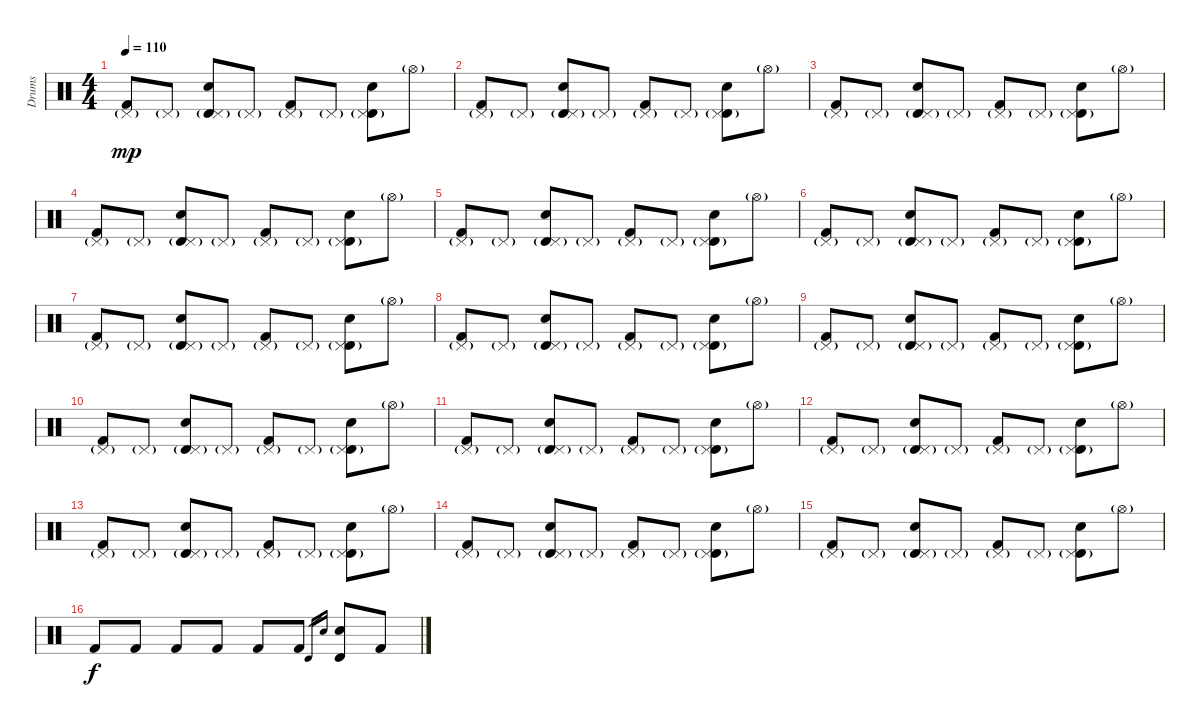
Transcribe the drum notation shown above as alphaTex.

\track ("Drums" "Drums") {instrument percussion}
\staff {score}
\articulation defaults
\ts (4 4)
\tempo 110
\clef neutral
\ks c
("Kick (hit) 2" "Pedal Hi-Hat (hit)"{g}).8{dy mp} "Pedal Hi-Hat (hit)"{g}.8 ("Timbale high (hit)" "Electric Snare (hit)" "Pedal Hi-Hat (hit)"{g}).8 "Pedal Hi-Hat (hit)"{g}.8 ("Kick (hit) 2" "Pedal Hi-Hat (hit)"{g}).8 "Pedal Hi-Hat (hit)"{g}.8 ("Timbale high (hit)" "Electric Snare (hit)" "Pedal Hi-Hat (hit)"{g}).8 "Hi-Hat (open)"{g}.8 |
("Kick (hit) 2" "Pedal Hi-Hat (hit)"{g}).8 "Pedal Hi-Hat (hit)"{g}.8 ("Timbale high (hit)" "Electric Snare (hit)" "Pedal Hi-Hat (hit)"{g}).8 "Pedal Hi-Hat (hit)"{g}.8 ("Kick (hit) 2" "Pedal Hi-Hat (hit)"{g}).8 "Pedal Hi-Hat (hit)"{g}.8 ("Timbale high (hit)" "Electric Snare (hit)" "Pedal Hi-Hat (hit)"{g}).8 "Hi-Hat (open)"{g}.8 |
("Kick (hit) 2" "Pedal Hi-Hat (hit)"{g}).8 "Pedal Hi-Hat (hit)"{g}.8 ("Timbale high (hit)" "Electric Snare (hit)" "Pedal Hi-Hat (hit)"{g}).8 "Pedal Hi-Hat (hit)"{g}.8 ("Kick (hit) 2" "Pedal Hi-Hat (hit)"{g}).8 "Pedal Hi-Hat (hit)"{g}.8 ("Timbale high (hit)" "Electric Snare (hit)" "Pedal Hi-Hat (hit)"{g}).8 "Hi-Hat (open)"{g}.8 |
("Kick (hit) 2" "Pedal Hi-Hat (hit)"{g}).8 "Pedal Hi-Hat (hit)"{g}.8 ("Timbale high (hit)" "Electric Snare (hit)" "Pedal Hi-Hat (hit)"{g}).8 "Pedal Hi-Hat (hit)"{g}.8 ("Kick (hit) 2" "Pedal Hi-Hat (hit)"{g}).8 "Pedal Hi-Hat (hit)"{g}.8 ("Timbale high (hit)" "Electric Snare (hit)" "Pedal Hi-Hat (hit)"{g}).8 "Hi-Hat (open)"{g}.8 |
("Kick (hit) 2" "Pedal Hi-Hat (hit)"{g}).8 "Pedal Hi-Hat (hit)"{g}.8 ("Timbale high (hit)" "Electric Snare (hit)" "Pedal Hi-Hat (hit)"{g}).8 "Pedal Hi-Hat (hit)"{g}.8 ("Kick (hit) 2" "Pedal Hi-Hat (hit)"{g}).8 "Pedal Hi-Hat (hit)"{g}.8 ("Timbale high (hit)" "Electric Snare (hit)" "Pedal Hi-Hat (hit)"{g}).8 "Hi-Hat (open)"{g}.8 |
("Kick (hit) 2" "Pedal Hi-Hat (hit)"{g}).8 "Pedal Hi-Hat (hit)"{g}.8 ("Timbale high (hit)" "Electric Snare (hit)" "Pedal Hi-Hat (hit)"{g}).8 "Pedal Hi-Hat (hit)"{g}.8 ("Kick (hit) 2" "Pedal Hi-Hat (hit)"{g}).8 "Pedal Hi-Hat (hit)"{g}.8 ("Timbale high (hit)" "Electric Snare (hit)" "Pedal Hi-Hat (hit)"{g}).8 "Hi-Hat (open)"{g}.8 |
("Kick (hit) 2" "Pedal Hi-Hat (hit)"{g}).8 "Pedal Hi-Hat (hit)"{g}.8 ("Timbale high (hit)" "Electric Snare (hit)" "Pedal Hi-Hat (hit)"{g}).8 "Pedal Hi-Hat (hit)"{g}.8 ("Kick (hit) 2" "Pedal Hi-Hat (hit)"{g}).8 "Pedal Hi-Hat (hit)"{g}.8 ("Timbale high (hit)" "Electric Snare (hit)" "Pedal Hi-Hat (hit)"{g}).8 "Hi-Hat (open)"{g}.8 |
("Kick (hit) 2" "Pedal Hi-Hat (hit)"{g}).8 "Pedal Hi-Hat (hit)"{g}.8 ("Timbale high (hit)" "Electric Snare (hit)" "Pedal Hi-Hat (hit)"{g}).8 "Pedal Hi-Hat (hit)"{g}.8 ("Kick (hit) 2" "Pedal Hi-Hat (hit)"{g}).8 "Pedal Hi-Hat (hit)"{g}.8 ("Timbale high (hit)" "Electric Snare (hit)" "Pedal Hi-Hat (hit)"{g}).8 "Hi-Hat (open)"{g}.8 |
("Kick (hit) 2" "Pedal Hi-Hat (hit)"{g}).8 "Pedal Hi-Hat (hit)"{g}.8 ("Timbale high (hit)" "Electric Snare (hit)" "Pedal Hi-Hat (hit)"{g}).8 "Pedal Hi-Hat (hit)"{g}.8 ("Kick (hit) 2" "Pedal Hi-Hat (hit)"{g}).8 "Pedal Hi-Hat (hit)"{g}.8 ("Timbale high (hit)" "Electric Snare (hit)" "Pedal Hi-Hat (hit)"{g}).8 "Hi-Hat (open)"{g}.8 |
("Kick (hit) 2" "Pedal Hi-Hat (hit)"{g}).8 "Pedal Hi-Hat (hit)"{g}.8 ("Timbale high (hit)" "Electric Snare (hit)" "Pedal Hi-Hat (hit)"{g}).8 "Pedal Hi-Hat (hit)"{g}.8 ("Kick (hit) 2" "Pedal Hi-Hat (hit)"{g}).8 "Pedal Hi-Hat (hit)"{g}.8 ("Timbale high (hit)" "Electric Snare (hit)" "Pedal Hi-Hat (hit)"{g}).8 "Hi-Hat (open)"{g}.8 |
("Kick (hit) 2" "Pedal Hi-Hat (hit)"{g}).8 "Pedal Hi-Hat (hit)"{g}.8 ("Timbale high (hit)" "Electric Snare (hit)" "Pedal Hi-Hat (hit)"{g}).8 "Pedal Hi-Hat (hit)"{g}.8 ("Kick (hit) 2" "Pedal Hi-Hat (hit)"{g}).8 "Pedal Hi-Hat (hit)"{g}.8 ("Timbale high (hit)" "Electric Snare (hit)" "Pedal Hi-Hat (hit)"{g}).8 "Hi-Hat (open)"{g}.8 |
("Kick (hit) 2" "Pedal Hi-Hat (hit)"{g}).8 "Pedal Hi-Hat (hit)"{g}.8 ("Timbale high (hit)" "Electric Snare (hit)" "Pedal Hi-Hat (hit)"{g}).8 "Pedal Hi-Hat (hit)"{g}.8 ("Kick (hit) 2" "Pedal Hi-Hat (hit)"{g}).8 "Pedal Hi-Hat (hit)"{g}.8 ("Timbale high (hit)" "Electric Snare (hit)" "Pedal Hi-Hat (hit)"{g}).8 "Hi-Hat (open)"{g}.8 |
("Kick (hit) 2" "Pedal Hi-Hat (hit)"{g}).8 "Pedal Hi-Hat (hit)"{g}.8 ("Timbale high (hit)" "Electric Snare (hit)" "Pedal Hi-Hat (hit)"{g}).8 "Pedal Hi-Hat (hit)"{g}.8 ("Kick (hit) 2" "Pedal Hi-Hat (hit)"{g}).8 "Pedal Hi-Hat (hit)"{g}.8 ("Timbale high (hit)" "Electric Snare (hit)" "Pedal Hi-Hat (hit)"{g}).8 "Hi-Hat (open)"{g}.8 |
("Kick (hit) 2" "Pedal Hi-Hat (hit)"{g}).8 "Pedal Hi-Hat (hit)"{g}.8 ("Timbale high (hit)" "Electric Snare (hit)" "Pedal Hi-Hat (hit)"{g}).8 "Pedal Hi-Hat (hit)"{g}.8 ("Kick (hit) 2" "Pedal Hi-Hat (hit)"{g}).8 "Pedal Hi-Hat (hit)"{g}.8 ("Timbale high (hit)" "Electric Snare (hit)" "Pedal Hi-Hat (hit)"{g}).8 "Hi-Hat (open)"{g}.8 |
("Kick (hit) 2" "Pedal Hi-Hat (hit)"{g}).8 "Pedal Hi-Hat (hit)"{g}.8 ("Timbale high (hit)" "Electric Snare (hit)" "Pedal Hi-Hat (hit)"{g}).8 "Pedal Hi-Hat (hit)"{g}.8 ("Kick (hit) 2" "Pedal Hi-Hat (hit)"{g}).8 "Pedal Hi-Hat (hit)"{g}.8 ("Timbale high (hit)" "Electric Snare (hit)" "Pedal Hi-Hat (hit)"{g}).8 "Hi-Hat (open)"{g}.8 |
"Kick (hit) 2".8{dy f} "Kick (hit) 2".8 "Kick (hit) 2".8 "Kick (hit) 2".8 "Kick (hit) 2".8 "Kick (hit) 2".8 "Timbale high (hit)".16{gr} "Electric Snare (hit)".16{gr} ("Timbale high (hit)" "Electric Snare (hit)").8 "Kick (hit) 2".8
